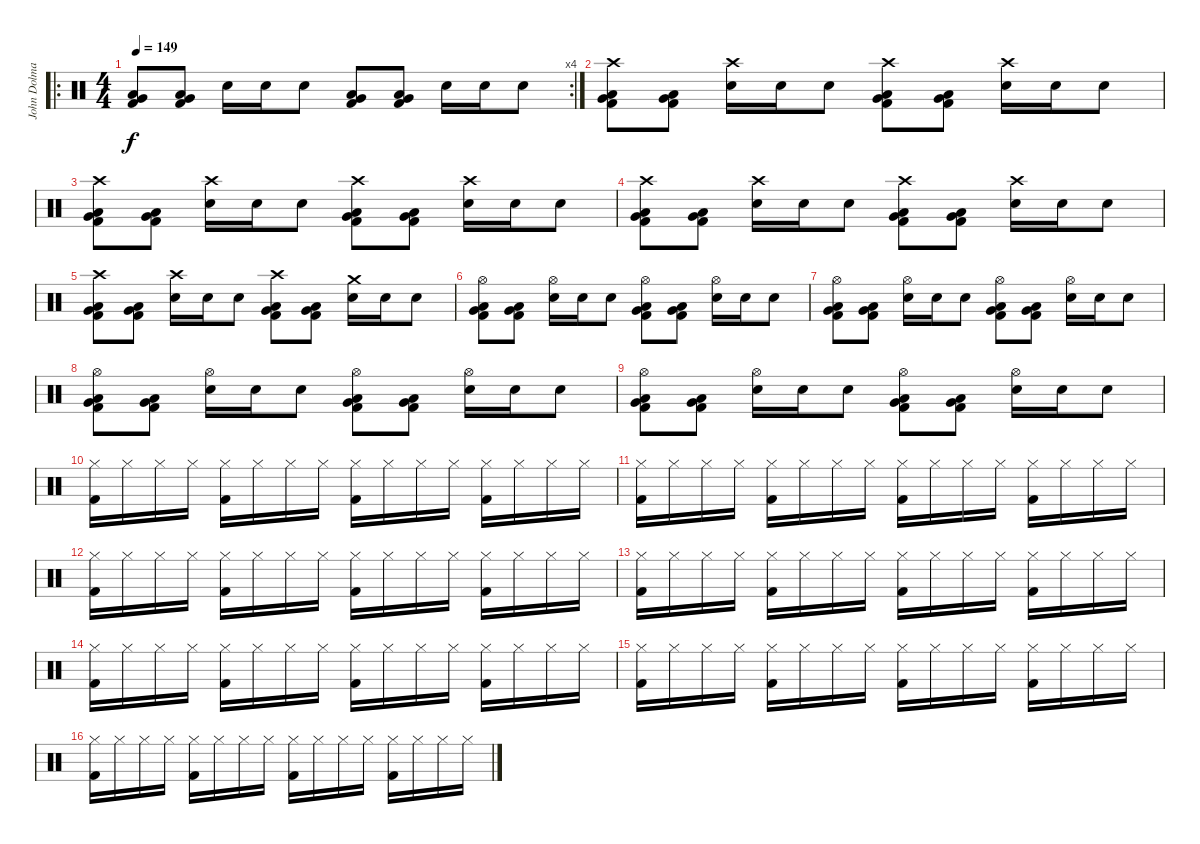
\track ("John Dolmayan (Drums)" "John Dolma") {instrument percussion}
\staff {score}
\articulation defaults
\ro
\rc 4
\ts (4 4)
\tempo 149
\clef neutral
\ks c
("Very Low Tom (hit)" "Low Floor Tom (hit)" "Kick (hit) 2").8{dy f} ("Very Low Tom (hit)" "Low Floor Tom (hit)" "Kick (hit) 2").8 "Electric Snare (hit)".16 "Electric Snare (hit)".16 "Electric Snare (hit)".8 ("Very Low Tom (hit)" "Low Floor Tom (hit)" "Kick (hit) 2").8 ("Very Low Tom (hit)" "Low Floor Tom (hit)" "Kick (hit) 2").8 "Electric Snare (hit)".16 "Electric Snare (hit)".16 "Electric Snare (hit)".8 |
("Crash high (hit)" "Very Low Tom (hit)" "Low Floor Tom (hit)" "Kick (hit) 2").8 ("Very Low Tom (hit)" "Low Floor Tom (hit)" "Kick (hit) 2").8 ("Crash high (hit)" "Electric Snare (hit)").16 "Electric Snare (hit)".16 "Electric Snare (hit)".8 ("Crash high (hit)" "Very Low Tom (hit)" "Low Floor Tom (hit)" "Kick (hit) 2").8 ("Very Low Tom (hit)" "Low Floor Tom (hit)" "Kick (hit) 2").8 ("Crash high (hit)" "Electric Snare (hit)").16 "Electric Snare (hit)".16 "Electric Snare (hit)".8 |
("Crash high (hit)" "Very Low Tom (hit)" "Low Floor Tom (hit)" "Kick (hit) 2").8 ("Very Low Tom (hit)" "Low Floor Tom (hit)" "Kick (hit) 2").8 ("Crash high (hit)" "Electric Snare (hit)").16 "Electric Snare (hit)".16 "Electric Snare (hit)".8 ("Crash high (hit)" "Very Low Tom (hit)" "Low Floor Tom (hit)" "Kick (hit) 2").8 ("Very Low Tom (hit)" "Low Floor Tom (hit)" "Kick (hit) 2").8 ("Crash high (hit)" "Electric Snare (hit)").16 "Electric Snare (hit)".16 "Electric Snare (hit)".8 |
("Crash high (hit)" "Very Low Tom (hit)" "Low Floor Tom (hit)" "Kick (hit) 2").8 ("Very Low Tom (hit)" "Low Floor Tom (hit)" "Kick (hit) 2").8 ("Crash high (hit)" "Electric Snare (hit)").16 "Electric Snare (hit)".16 "Electric Snare (hit)".8 ("Crash high (hit)" "Very Low Tom (hit)" "Low Floor Tom (hit)" "Kick (hit) 2").8 ("Very Low Tom (hit)" "Low Floor Tom (hit)" "Kick (hit) 2").8 ("Crash high (hit)" "Electric Snare (hit)").16 "Electric Snare (hit)".16 "Electric Snare (hit)".8 |
("Crash high (hit)" "Very Low Tom (hit)" "Low Floor Tom (hit)" "Kick (hit) 2").8 ("Very Low Tom (hit)" "Low Floor Tom (hit)" "Kick (hit) 2").8 ("Crash high (hit)" "Electric Snare (hit)").16 "Electric Snare (hit)".16 "Electric Snare (hit)".8 ("Crash high (hit)" "Very Low Tom (hit)" "Low Floor Tom (hit)" "Kick (hit) 2").8 ("Very Low Tom (hit)" "Low Floor Tom (hit)" "Kick (hit) 2").8 ("Crash medium (hit)" "Electric Snare (hit)").16 "Electric Snare (hit)".16 "Electric Snare (hit)".8 |
("Hi-Hat (open)" "Very Low Tom (hit)" "Low Floor Tom (hit)" "Kick (hit) 2").8 ("Very Low Tom (hit)" "Low Floor Tom (hit)" "Kick (hit) 2").8 ("Hi-Hat (open)" "Electric Snare (hit)").16 "Electric Snare (hit)".16 "Electric Snare (hit)".8 ("Hi-Hat (open)" "Very Low Tom (hit)" "Low Floor Tom (hit)" "Kick (hit) 2").8 ("Very Low Tom (hit)" "Low Floor Tom (hit)" "Kick (hit) 2").8 ("Hi-Hat (open)" "Electric Snare (hit)").16 "Electric Snare (hit)".16 "Electric Snare (hit)".8 |
("Hi-Hat (open)" "Very Low Tom (hit)" "Low Floor Tom (hit)" "Kick (hit) 2").8 ("Very Low Tom (hit)" "Low Floor Tom (hit)" "Kick (hit) 2").8 ("Hi-Hat (open)" "Electric Snare (hit)").16 "Electric Snare (hit)".16 "Electric Snare (hit)".8 ("Hi-Hat (open)" "Very Low Tom (hit)" "Low Floor Tom (hit)" "Kick (hit) 2").8 ("Very Low Tom (hit)" "Low Floor Tom (hit)" "Kick (hit) 2").8 ("Hi-Hat (open)" "Electric Snare (hit)").16 "Electric Snare (hit)".16 "Electric Snare (hit)".8 |
("Hi-Hat (open)" "Very Low Tom (hit)" "Low Floor Tom (hit)" "Kick (hit) 2").8 ("Very Low Tom (hit)" "Low Floor Tom (hit)" "Kick (hit) 2").8 ("Hi-Hat (open)" "Electric Snare (hit)").16 "Electric Snare (hit)".16 "Electric Snare (hit)".8 ("Hi-Hat (open)" "Very Low Tom (hit)" "Low Floor Tom (hit)" "Kick (hit) 2").8 ("Very Low Tom (hit)" "Low Floor Tom (hit)" "Kick (hit) 2").8 ("Hi-Hat (open)" "Electric Snare (hit)").16 "Electric Snare (hit)".16 "Electric Snare (hit)".8 |
("Hi-Hat (open)" "Very Low Tom (hit)" "Low Floor Tom (hit)" "Kick (hit) 2").8 ("Very Low Tom (hit)" "Low Floor Tom (hit)" "Kick (hit) 2").8 ("Hi-Hat (open)" "Electric Snare (hit)").16 "Electric Snare (hit)".16 "Electric Snare (hit)".8 ("Hi-Hat (open)" "Very Low Tom (hit)" "Low Floor Tom (hit)" "Kick (hit) 2").8 ("Very Low Tom (hit)" "Low Floor Tom (hit)" "Kick (hit) 2").8 ("Hi-Hat (open)" "Electric Snare (hit)").16 "Electric Snare (hit)".16 "Electric Snare (hit)".8 |
("Hi-Hat (closed)" "Kick (hit) 2").16 "Hi-Hat (closed)".16 "Hi-Hat (closed)".16 "Hi-Hat (closed)".16 ("Hi-Hat (closed)" "Kick (hit) 2").16 "Hi-Hat (closed)".16 "Hi-Hat (closed)".16 "Hi-Hat (closed)".16 ("Hi-Hat (closed)" "Kick (hit) 2").16 "Hi-Hat (closed)".16 "Hi-Hat (closed)".16 "Hi-Hat (closed)".16 ("Hi-Hat (closed)" "Kick (hit) 2").16 "Hi-Hat (closed)".16 "Hi-Hat (closed)".16 "Hi-Hat (closed)".16 |
("Hi-Hat (closed)" "Kick (hit) 2").16 "Hi-Hat (closed)".16 "Hi-Hat (closed)".16 "Hi-Hat (closed)".16 ("Hi-Hat (closed)" "Kick (hit) 2").16 "Hi-Hat (closed)".16 "Hi-Hat (closed)".16 "Hi-Hat (closed)".16 ("Hi-Hat (closed)" "Kick (hit) 2").16 "Hi-Hat (closed)".16 "Hi-Hat (closed)".16 "Hi-Hat (closed)".16 ("Hi-Hat (closed)" "Kick (hit) 2").16 "Hi-Hat (closed)".16 "Hi-Hat (closed)".16 "Hi-Hat (closed)".16 |
("Hi-Hat (closed)" "Kick (hit) 2").16 "Hi-Hat (closed)".16 "Hi-Hat (closed)".16 "Hi-Hat (closed)".16 ("Hi-Hat (closed)" "Kick (hit) 2").16 "Hi-Hat (closed)".16 "Hi-Hat (closed)".16 "Hi-Hat (closed)".16 ("Hi-Hat (closed)" "Kick (hit) 2").16 "Hi-Hat (closed)".16 "Hi-Hat (closed)".16 "Hi-Hat (closed)".16 ("Hi-Hat (closed)" "Kick (hit) 2").16 "Hi-Hat (closed)".16 "Hi-Hat (closed)".16 "Hi-Hat (closed)".16 |
("Hi-Hat (closed)" "Kick (hit) 2").16 "Hi-Hat (closed)".16 "Hi-Hat (closed)".16 "Hi-Hat (closed)".16 ("Hi-Hat (closed)" "Kick (hit) 2").16 "Hi-Hat (closed)".16 "Hi-Hat (closed)".16 "Hi-Hat (closed)".16 ("Hi-Hat (closed)" "Kick (hit) 2").16 "Hi-Hat (closed)".16 "Hi-Hat (closed)".16 "Hi-Hat (closed)".16 ("Hi-Hat (closed)" "Kick (hit) 2").16 "Hi-Hat (closed)".16 "Hi-Hat (closed)".16 "Hi-Hat (closed)".16 |
("Hi-Hat (closed)" "Kick (hit) 2").16 "Hi-Hat (closed)".16 "Hi-Hat (closed)".16 "Hi-Hat (closed)".16 ("Hi-Hat (closed)" "Kick (hit) 2").16 "Hi-Hat (closed)".16 "Hi-Hat (closed)".16 "Hi-Hat (closed)".16 ("Hi-Hat (closed)" "Kick (hit) 2").16 "Hi-Hat (closed)".16 "Hi-Hat (closed)".16 "Hi-Hat (closed)".16 ("Hi-Hat (closed)" "Kick (hit) 2").16 "Hi-Hat (closed)".16 "Hi-Hat (closed)".16 "Hi-Hat (closed)".16 |
("Hi-Hat (closed)" "Kick (hit) 2").16 "Hi-Hat (closed)".16 "Hi-Hat (closed)".16 "Hi-Hat (closed)".16 ("Hi-Hat (closed)" "Kick (hit) 2").16 "Hi-Hat (closed)".16 "Hi-Hat (closed)".16 "Hi-Hat (closed)".16 ("Hi-Hat (closed)" "Kick (hit) 2").16 "Hi-Hat (closed)".16 "Hi-Hat (closed)".16 "Hi-Hat (closed)".16 ("Hi-Hat (closed)" "Kick (hit) 2").16 "Hi-Hat (closed)".16 "Hi-Hat (closed)".16 "Hi-Hat (closed)".16 |
("Hi-Hat (closed)" "Kick (hit) 2").16 "Hi-Hat (closed)".16 "Hi-Hat (closed)".16 "Hi-Hat (closed)".16 ("Hi-Hat (closed)" "Kick (hit) 2").16 "Hi-Hat (closed)".16 "Hi-Hat (closed)".16 "Hi-Hat (closed)".16 ("Hi-Hat (closed)" "Kick (hit) 2").16 "Hi-Hat (closed)".16 "Hi-Hat (closed)".16 "Hi-Hat (closed)".16 ("Hi-Hat (closed)" "Kick (hit) 2").16 "Hi-Hat (closed)".16 "Hi-Hat (closed)".16 "Hi-Hat (closed)".16
